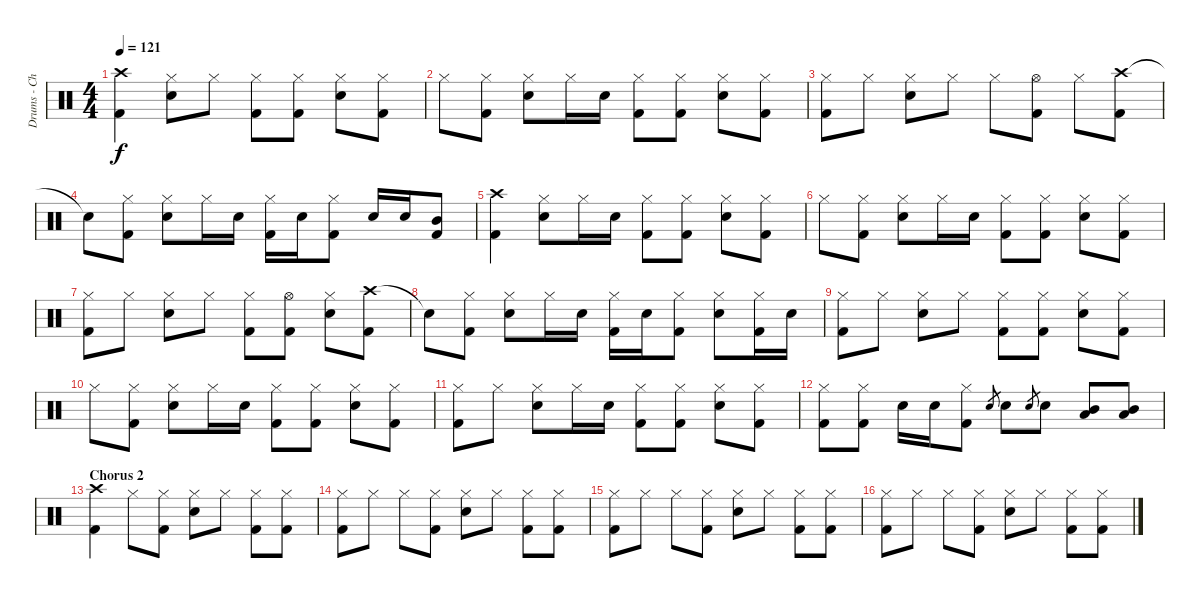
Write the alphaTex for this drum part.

\track ("Drums - Chad" "Drums - Ch") {instrument percussion}
\staff {score}
\articulation defaults
\ts (4 4)
\tempo 121
\clef neutral
\ks c
("Crash high (hit)" "Kick (hit) 2").4{dy f} ("Hi-Hat (closed)" "Electric Snare (hit)").8 "Hi-Hat (closed)".8 ("Hi-Hat (closed)" "Kick (hit) 2").8 ("Hi-Hat (closed)" "Kick (hit) 2").8 ("Hi-Hat (closed)" "Electric Snare (hit)").8 ("Hi-Hat (closed)" "Kick (hit) 2").8 |
"Hi-Hat (closed)".8 ("Hi-Hat (closed)" "Kick (hit) 2").8 ("Hi-Hat (closed)" "Electric Snare (hit)").8 "Hi-Hat (closed)".16 "Electric Snare (hit)".16 ("Hi-Hat (closed)" "Kick (hit) 2").8 ("Hi-Hat (closed)" "Kick (hit) 2").8 ("Hi-Hat (closed)" "Electric Snare (hit)").8 ("Hi-Hat (closed)" "Kick (hit) 2").8 |
("Hi-Hat (closed)" "Kick (hit) 2").8 "Hi-Hat (closed)".8 ("Hi-Hat (closed)" "Electric Snare (hit)").8 "Hi-Hat (closed)".8 "Hi-Hat (closed)".8 ("Hi-Hat (open)" "Kick (hit) 2").8 "Hi-Hat (closed)".8 ("Crash high (hit)" "Kick (hit) 2").8 |
"Snare (hit)"{t}.8 ("Hi-Hat (closed)" "Kick (hit) 2").8 ("Hi-Hat (closed)" "Electric Snare (hit)").8 "Hi-Hat (closed)".16 "Electric Snare (hit)".16 ("Hi-Hat (closed)" "Kick (hit) 2").16 "Electric Snare (hit)".16 ("Hi-Hat (closed)" "Kick (hit) 2").8 "Electric Snare (hit)".16 "Electric Snare (hit)".16 ("Mid Tom (hit)" "Kick (hit) 2").8 |
("Crash high (hit)" "Kick (hit) 2").4 ("Hi-Hat (closed)" "Electric Snare (hit)").8 "Hi-Hat (closed)".16 "Electric Snare (hit)".16 ("Hi-Hat (closed)" "Kick (hit) 2").8 ("Hi-Hat (closed)" "Kick (hit) 2").8 ("Hi-Hat (closed)" "Electric Snare (hit)").8 ("Hi-Hat (closed)" "Kick (hit) 2").8 |
"Hi-Hat (closed)".8 ("Hi-Hat (closed)" "Kick (hit) 2").8 ("Hi-Hat (closed)" "Electric Snare (hit)").8 "Hi-Hat (closed)".16 "Electric Snare (hit)".16 ("Hi-Hat (closed)" "Kick (hit) 2").8 ("Hi-Hat (closed)" "Kick (hit) 2").8 ("Hi-Hat (closed)" "Electric Snare (hit)").8 ("Hi-Hat (closed)" "Kick (hit) 2").8 |
("Hi-Hat (closed)" "Kick (hit) 2").8 "Hi-Hat (closed)".8 ("Hi-Hat (closed)" "Electric Snare (hit)").8 "Hi-Hat (closed)".8 ("Hi-Hat (closed)" "Kick (hit) 2").8 ("Hi-Hat (open)" "Kick (hit) 2").8 ("Hi-Hat (closed)" "Electric Snare (hit)").8 ("Crash high (hit)" "Kick (hit) 2").8 |
"Snare (hit)"{t}.8 ("Hi-Hat (closed)" "Kick (hit) 2").8 ("Hi-Hat (closed)" "Electric Snare (hit)").8 "Hi-Hat (closed)".16 "Electric Snare (hit)".16 ("Hi-Hat (closed)" "Kick (hit) 2").16 "Electric Snare (hit)".16 ("Hi-Hat (closed)" "Kick (hit) 2").8 ("Hi-Hat (closed)" "Electric Snare (hit)").8 ("Hi-Hat (closed)" "Kick (hit) 2").16 "Electric Snare (hit)".16 |
("Hi-Hat (closed)" "Kick (hit) 2").8 "Hi-Hat (closed)".8 ("Hi-Hat (closed)" "Electric Snare (hit)").8 "Hi-Hat (closed)".8 ("Hi-Hat (closed)" "Kick (hit) 2").8 ("Hi-Hat (closed)" "Kick (hit) 2").8 ("Hi-Hat (closed)" "Electric Snare (hit)").8 ("Hi-Hat (closed)" "Kick (hit) 2").8 |
"Hi-Hat (closed)".8 ("Hi-Hat (closed)" "Kick (hit) 2").8 ("Hi-Hat (closed)" "Electric Snare (hit)").8 "Hi-Hat (closed)".16 "Electric Snare (hit)".16 ("Hi-Hat (closed)" "Kick (hit) 2").8 ("Hi-Hat (closed)" "Kick (hit) 2").8 ("Hi-Hat (closed)" "Electric Snare (hit)").8 ("Hi-Hat (closed)" "Kick (hit) 2").8 |
("Hi-Hat (closed)" "Kick (hit) 2").8 "Hi-Hat (closed)".8 ("Hi-Hat (closed)" "Electric Snare (hit)").8 "Hi-Hat (closed)".16 "Electric Snare (hit)".16 ("Hi-Hat (closed)" "Kick (hit) 2").8 ("Hi-Hat (closed)" "Kick (hit) 2").8 ("Hi-Hat (closed)" "Electric Snare (hit)").8 ("Hi-Hat (closed)" "Kick (hit) 2").8 |
("Hi-Hat (closed)" "Kick (hit) 2").8 ("Hi-Hat (closed)" "Kick (hit) 2").8 "Electric Snare (hit)".16 "Electric Snare (hit)".16 ("Hi-Hat (closed)" "Kick (hit) 2").8 "Electric Snare (hit)".8{gr} "Electric Snare (hit)".8 "Electric Snare (hit)".8{gr} "Electric Snare (hit)".8 ("Mid Tom (hit)" "Low Tom (hit)").8 ("Mid Tom (hit)" "Low Tom (hit)").8 |
\section ("" "Chorus 2")
("Crash high (hit)" "Kick (hit) 2").4 "Hi-Hat (closed)".8 ("Hi-Hat (closed)" "Kick (hit) 2").8 ("Hi-Hat (closed)" "Electric Snare (hit)").8 "Hi-Hat (closed)".8 ("Hi-Hat (closed)" "Kick (hit) 2").8 ("Hi-Hat (closed)" "Kick (hit) 2").8 |
("Hi-Hat (closed)" "Kick (hit) 2").8 "Hi-Hat (closed)".8 "Hi-Hat (closed)".8 ("Hi-Hat (closed)" "Kick (hit) 2").8 ("Hi-Hat (closed)" "Electric Snare (hit)").8 "Hi-Hat (closed)".8 ("Hi-Hat (closed)" "Kick (hit) 2").8 ("Hi-Hat (closed)" "Kick (hit) 2").8 |
("Hi-Hat (closed)" "Kick (hit) 2").8 "Hi-Hat (closed)".8 "Hi-Hat (closed)".8 ("Hi-Hat (closed)" "Kick (hit) 2").8 ("Hi-Hat (closed)" "Electric Snare (hit)").8 "Hi-Hat (closed)".8 ("Hi-Hat (closed)" "Kick (hit) 2").8 ("Hi-Hat (closed)" "Kick (hit) 2").8 |
("Hi-Hat (closed)" "Kick (hit) 2").8 "Hi-Hat (closed)".8 "Hi-Hat (closed)".8 ("Hi-Hat (closed)" "Kick (hit) 2").8 ("Hi-Hat (closed)" "Electric Snare (hit)").8 "Hi-Hat (closed)".8 ("Hi-Hat (closed)" "Kick (hit) 2").8 ("Hi-Hat (closed)" "Kick (hit) 2").8
